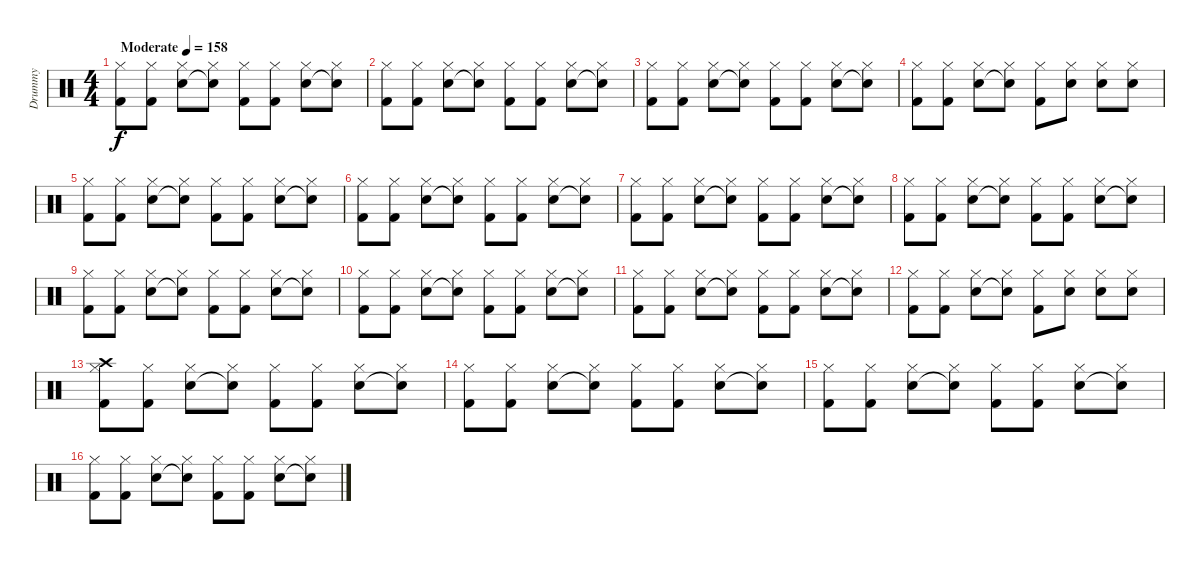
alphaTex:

\track ("Drummy" "Drummy") {instrument percussion bank 127}
\staff {score}
\articulation defaults
\ts (4 4)
\tempo (158 "Moderate")
\clef neutral
\ks c
("Hi-Hat (closed)" "Kick (hit) 2").8{dy f} ("Hi-Hat (closed)" "Kick (hit) 2").8 ("Hi-Hat (closed)" "Electric Snare (hit)").8 ("Hi-Hat (closed)" "Snare (hit)"{t}).8 ("Hi-Hat (closed)" "Kick (hit) 2").8 ("Hi-Hat (closed)" "Kick (hit) 2").8 ("Hi-Hat (closed)" "Electric Snare (hit)").8 ("Hi-Hat (closed)" "Snare (hit)"{t}).8 |
("Hi-Hat (closed)" "Kick (hit) 2").8 ("Hi-Hat (closed)" "Kick (hit) 2").8 ("Hi-Hat (closed)" "Electric Snare (hit)").8 ("Hi-Hat (closed)" "Snare (hit)"{t}).8 ("Hi-Hat (closed)" "Kick (hit) 2").8 ("Hi-Hat (closed)" "Kick (hit) 2").8 ("Hi-Hat (closed)" "Electric Snare (hit)").8 ("Hi-Hat (closed)" "Snare (hit)"{t}).8 |
("Hi-Hat (closed)" "Kick (hit) 2").8 ("Hi-Hat (closed)" "Kick (hit) 2").8 ("Hi-Hat (closed)" "Electric Snare (hit)").8 ("Hi-Hat (closed)" "Snare (hit)"{t}).8 ("Hi-Hat (closed)" "Kick (hit) 2").8 ("Hi-Hat (closed)" "Kick (hit) 2").8 ("Hi-Hat (closed)" "Electric Snare (hit)").8 ("Hi-Hat (closed)" "Snare (hit)"{t}).8 |
("Hi-Hat (closed)" "Kick (hit) 2").8 ("Hi-Hat (closed)" "Kick (hit) 2").8 ("Hi-Hat (closed)" "Electric Snare (hit)").8 ("Hi-Hat (closed)" "Electric Snare (hit)"{t}).8 ("Hi-Hat (closed)" "Kick (hit) 2").8 ("Hi-Hat (closed)" "Electric Snare (hit)").8 ("Hi-Hat (closed)" "Electric Snare (hit)").8 ("Hi-Hat (closed)" "Electric Snare (hit)").8 |
("Hi-Hat (closed)" "Kick (hit) 2").8 ("Hi-Hat (closed)" "Kick (hit) 2").8 ("Hi-Hat (closed)" "Electric Snare (hit)").8 ("Hi-Hat (closed)" "Snare (hit)"{t}).8 ("Hi-Hat (closed)" "Kick (hit) 2").8 ("Hi-Hat (closed)" "Kick (hit) 2").8 ("Hi-Hat (closed)" "Electric Snare (hit)").8 ("Hi-Hat (closed)" "Snare (hit)"{t}).8 |
("Hi-Hat (closed)" "Kick (hit) 2").8 ("Hi-Hat (closed)" "Kick (hit) 2").8 ("Hi-Hat (closed)" "Electric Snare (hit)").8 ("Hi-Hat (closed)" "Snare (hit)"{t}).8 ("Hi-Hat (closed)" "Kick (hit) 2").8 ("Hi-Hat (closed)" "Kick (hit) 2").8 ("Hi-Hat (closed)" "Electric Snare (hit)").8 ("Hi-Hat (closed)" "Snare (hit)"{t}).8 |
("Hi-Hat (closed)" "Kick (hit) 2").8 ("Hi-Hat (closed)" "Kick (hit) 2").8 ("Hi-Hat (closed)" "Electric Snare (hit)").8 ("Hi-Hat (closed)" "Snare (hit)"{t}).8 ("Hi-Hat (closed)" "Kick (hit) 2").8 ("Hi-Hat (closed)" "Kick (hit) 2").8 ("Hi-Hat (closed)" "Electric Snare (hit)").8 ("Hi-Hat (closed)" "Snare (hit)"{t}).8 |
("Hi-Hat (closed)" "Kick (hit) 2").8 ("Hi-Hat (closed)" "Kick (hit) 2").8 ("Hi-Hat (closed)" "Electric Snare (hit)").8 ("Hi-Hat (closed)" "Snare (hit)"{t}).8 ("Hi-Hat (closed)" "Kick (hit) 2").8 ("Hi-Hat (closed)" "Kick (hit) 2").8 ("Hi-Hat (closed)" "Electric Snare (hit)").8 ("Hi-Hat (closed)" "Snare (hit)"{t}).8 |
("Hi-Hat (closed)" "Kick (hit) 2").8 ("Hi-Hat (closed)" "Kick (hit) 2").8 ("Hi-Hat (closed)" "Electric Snare (hit)").8 ("Hi-Hat (closed)" "Snare (hit)"{t}).8 ("Hi-Hat (closed)" "Kick (hit) 2").8 ("Hi-Hat (closed)" "Kick (hit) 2").8 ("Hi-Hat (closed)" "Electric Snare (hit)").8 ("Hi-Hat (closed)" "Snare (hit)"{t}).8 |
("Hi-Hat (closed)" "Kick (hit) 2").8 ("Hi-Hat (closed)" "Kick (hit) 2").8 ("Hi-Hat (closed)" "Electric Snare (hit)").8 ("Hi-Hat (closed)" "Snare (hit)"{t}).8 ("Hi-Hat (closed)" "Kick (hit) 2").8 ("Hi-Hat (closed)" "Kick (hit) 2").8 ("Hi-Hat (closed)" "Electric Snare (hit)").8 ("Hi-Hat (closed)" "Snare (hit)"{t}).8 |
("Hi-Hat (closed)" "Kick (hit) 2").8 ("Hi-Hat (closed)" "Kick (hit) 2").8 ("Hi-Hat (closed)" "Electric Snare (hit)").8 ("Hi-Hat (closed)" "Snare (hit)"{t}).8 ("Hi-Hat (closed)" "Kick (hit) 2").8 ("Hi-Hat (closed)" "Kick (hit) 2").8 ("Hi-Hat (closed)" "Electric Snare (hit)").8 ("Hi-Hat (closed)" "Snare (hit)"{t}).8 |
("Hi-Hat (closed)" "Kick (hit) 2").8 ("Hi-Hat (closed)" "Kick (hit) 2").8 ("Hi-Hat (closed)" "Electric Snare (hit)").8 ("Hi-Hat (closed)" "Snare (hit)"{t}).8 ("Hi-Hat (closed)" "Kick (hit) 2").8 ("Hi-Hat (closed)" "Electric Snare (hit)").8 ("Hi-Hat (closed)" "Electric Snare (hit)").8 ("Hi-Hat (closed)" "Electric Snare (hit)").8 |
("Hi-Hat (closed)" "Crash high (hit)" "Kick (hit) 2").8 ("Hi-Hat (closed)" "Kick (hit) 2").8 ("Hi-Hat (closed)" "Electric Snare (hit)").8 ("Hi-Hat (closed)" "Snare (hit)"{t}).8 ("Hi-Hat (closed)" "Kick (hit) 2").8 ("Hi-Hat (closed)" "Kick (hit) 2").8 ("Hi-Hat (closed)" "Electric Snare (hit)").8 ("Hi-Hat (closed)" "Snare (hit)"{t}).8 |
("Hi-Hat (closed)" "Kick (hit) 2").8 ("Hi-Hat (closed)" "Kick (hit) 2").8 ("Hi-Hat (closed)" "Electric Snare (hit)").8 ("Hi-Hat (closed)" "Snare (hit)"{t}).8 ("Hi-Hat (closed)" "Kick (hit) 2").8 ("Hi-Hat (closed)" "Kick (hit) 2").8 ("Hi-Hat (closed)" "Electric Snare (hit)").8 ("Hi-Hat (closed)" "Snare (hit)"{t}).8 |
("Hi-Hat (closed)" "Kick (hit) 2").8 ("Hi-Hat (closed)" "Kick (hit) 2").8 ("Hi-Hat (closed)" "Electric Snare (hit)").8 ("Hi-Hat (closed)" "Snare (hit)"{t}).8 ("Hi-Hat (closed)" "Kick (hit) 2").8 ("Hi-Hat (closed)" "Kick (hit) 2").8 ("Hi-Hat (closed)" "Electric Snare (hit)").8 ("Hi-Hat (closed)" "Snare (hit)"{t}).8 |
("Hi-Hat (closed)" "Kick (hit) 2").8 ("Hi-Hat (closed)" "Kick (hit) 2").8 ("Hi-Hat (closed)" "Electric Snare (hit)").8 ("Hi-Hat (closed)" "Snare (hit)"{t}).8 ("Hi-Hat (closed)" "Kick (hit) 2").8 ("Hi-Hat (closed)" "Kick (hit) 2").8 ("Hi-Hat (closed)" "Electric Snare (hit)").8 ("Hi-Hat (closed)" "Snare (hit)"{t}).8
